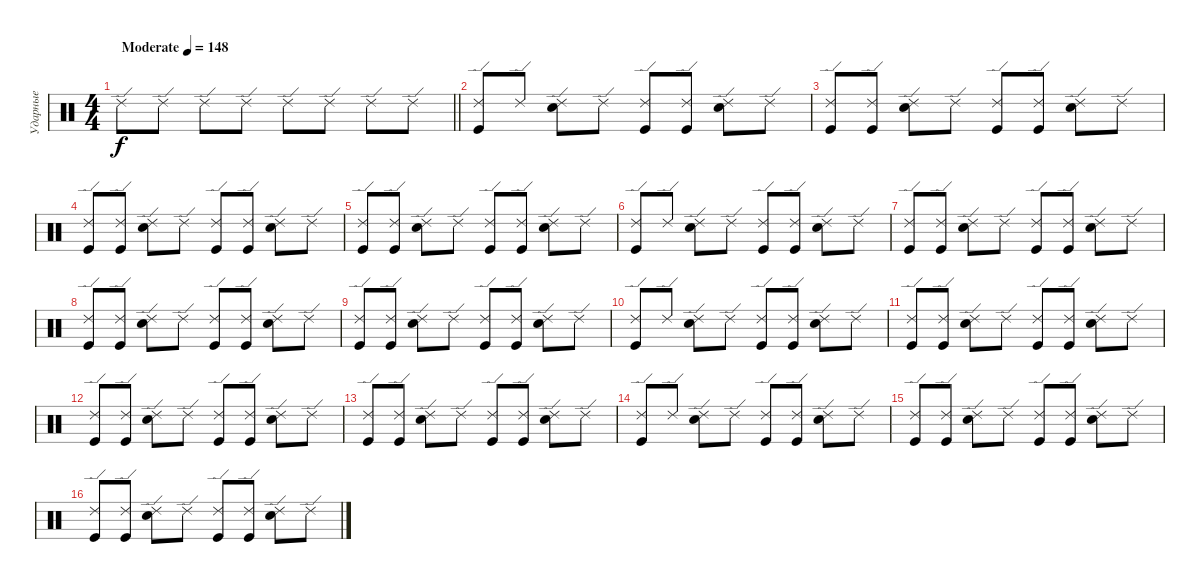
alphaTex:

\track ("Ударные" "Ударные") {instrument percussion}
\staff {score}
\articulation defaults
\ts (4 4)
\tempo (148 "Moderate")
\clef neutral
\barLineRight lightlight
\ks c "Ride (edge) 2".8{dy f} "Ride (edge) 2".8 "Ride (edge) 2".8 "Ride (edge) 2".8 "Ride (edge) 2".8 "Ride (edge) 2".8 "Ride (edge) 2".8 "Ride (edge) 2".8
|
\section ("" "")
("Ride (edge) 2" "Kick (hit)").8 "Ride (edge) 2".8 ("Ride (edge) 2" "Electric Snare (hit)").8 "Ride (edge) 2".8 ("Ride (edge) 2" "Kick (hit)").8 ("Ride (edge) 2" "Kick (hit)").8 ("Ride (edge) 2" "Electric Snare (hit)").8 "Ride (edge) 2".8 |
("Ride (edge) 2" "Kick (hit)").8 ("Ride (edge) 2" "Kick (hit)").8 ("Ride (edge) 2" "Electric Snare (hit)").8 "Ride (edge) 2".8 ("Ride (edge) 2" "Kick (hit)").8 ("Ride (edge) 2" "Kick (hit)").8 ("Ride (edge) 2" "Electric Snare (hit)").8 "Ride (edge) 2".8 |
("Ride (edge) 2" "Kick (hit)").8 ("Ride (edge) 2" "Kick (hit)").8 ("Ride (edge) 2" "Electric Snare (hit)").8 "Ride (edge) 2".8 ("Ride (edge) 2" "Kick (hit)").8 ("Ride (edge) 2" "Kick (hit)").8 ("Ride (edge) 2" "Electric Snare (hit)").8 "Ride (edge) 2".8 |
("Ride (edge) 2" "Kick (hit)").8 ("Ride (edge) 2" "Kick (hit)").8 ("Ride (edge) 2" "Electric Snare (hit)").8 "Ride (edge) 2".8 ("Ride (edge) 2" "Kick (hit)").8 ("Ride (edge) 2" "Kick (hit)").8 ("Ride (edge) 2" "Electric Snare (hit)").8 "Ride (edge) 2".8 |
("Ride (edge) 2" "Kick (hit)").8 "Ride (edge) 2".8 ("Ride (edge) 2" "Electric Snare (hit)").8 "Ride (edge) 2".8 ("Ride (edge) 2" "Kick (hit)").8 ("Ride (edge) 2" "Kick (hit)").8 ("Ride (edge) 2" "Electric Snare (hit)").8 "Ride (edge) 2".8 |
("Ride (edge) 2" "Kick (hit)").8 ("Ride (edge) 2" "Kick (hit)").8 ("Ride (edge) 2" "Electric Snare (hit)").8 "Ride (edge) 2".8 ("Ride (edge) 2" "Kick (hit)").8 ("Ride (edge) 2" "Kick (hit)").8 ("Ride (edge) 2" "Electric Snare (hit)").8 "Ride (edge) 2".8 |
("Ride (edge) 2" "Kick (hit)").8 ("Ride (edge) 2" "Kick (hit)").8 ("Ride (edge) 2" "Electric Snare (hit)").8 "Ride (edge) 2".8 ("Ride (edge) 2" "Kick (hit)").8 ("Ride (edge) 2" "Kick (hit)").8 ("Ride (edge) 2" "Electric Snare (hit)").8 "Ride (edge) 2".8 |
("Ride (edge) 2" "Kick (hit)").8 ("Ride (edge) 2" "Kick (hit)").8 ("Ride (edge) 2" "Electric Snare (hit)").8 "Ride (edge) 2".8 ("Ride (edge) 2" "Kick (hit)").8 ("Ride (edge) 2" "Kick (hit)").8 ("Ride (edge) 2" "Electric Snare (hit)").8 "Ride (edge) 2".8 |
("Ride (edge) 2" "Kick (hit)").8 "Ride (edge) 2".8 ("Ride (edge) 2" "Electric Snare (hit)").8 "Ride (edge) 2".8 ("Ride (edge) 2" "Kick (hit)").8 ("Ride (edge) 2" "Kick (hit)").8 ("Ride (edge) 2" "Electric Snare (hit)").8 "Ride (edge) 2".8 |
("Ride (edge) 2" "Kick (hit)").8 ("Ride (edge) 2" "Kick (hit)").8 ("Ride (edge) 2" "Electric Snare (hit)").8 "Ride (edge) 2".8 ("Ride (edge) 2" "Kick (hit)").8 ("Ride (edge) 2" "Kick (hit)").8 ("Ride (edge) 2" "Electric Snare (hit)").8 "Ride (edge) 2".8 |
("Ride (edge) 2" "Kick (hit)").8 ("Ride (edge) 2" "Kick (hit)").8 ("Ride (edge) 2" "Electric Snare (hit)").8 "Ride (edge) 2".8 ("Ride (edge) 2" "Kick (hit)").8 ("Ride (edge) 2" "Kick (hit)").8 ("Ride (edge) 2" "Electric Snare (hit)").8 "Ride (edge) 2".8 |
("Ride (edge) 2" "Kick (hit)").8 ("Ride (edge) 2" "Kick (hit)").8 ("Ride (edge) 2" "Electric Snare (hit)").8 "Ride (edge) 2".8 ("Ride (edge) 2" "Kick (hit)").8 ("Ride (edge) 2" "Kick (hit)").8 ("Ride (edge) 2" "Electric Snare (hit)").8 "Ride (edge) 2".8 |
("Ride (edge) 2" "Kick (hit)").8 "Ride (edge) 2".8 ("Ride (edge) 2" "Electric Snare (hit)").8 "Ride (edge) 2".8 ("Ride (edge) 2" "Kick (hit)").8 ("Ride (edge) 2" "Kick (hit)").8 ("Ride (edge) 2" "Electric Snare (hit)").8 "Ride (edge) 2".8 |
("Ride (edge) 2" "Kick (hit)").8 ("Ride (edge) 2" "Kick (hit)").8 ("Ride (edge) 2" "Electric Snare (hit)").8 "Ride (edge) 2".8 ("Ride (edge) 2" "Kick (hit)").8 ("Ride (edge) 2" "Kick (hit)").8 ("Ride (edge) 2" "Electric Snare (hit)").8 "Ride (edge) 2".8 |
("Ride (edge) 2" "Kick (hit)").8 ("Ride (edge) 2" "Kick (hit)").8 ("Ride (edge) 2" "Electric Snare (hit)").8 "Ride (edge) 2".8 ("Ride (edge) 2" "Kick (hit)").8 ("Ride (edge) 2" "Kick (hit)").8 ("Ride (edge) 2" "Electric Snare (hit)").8 "Ride (edge) 2".8
